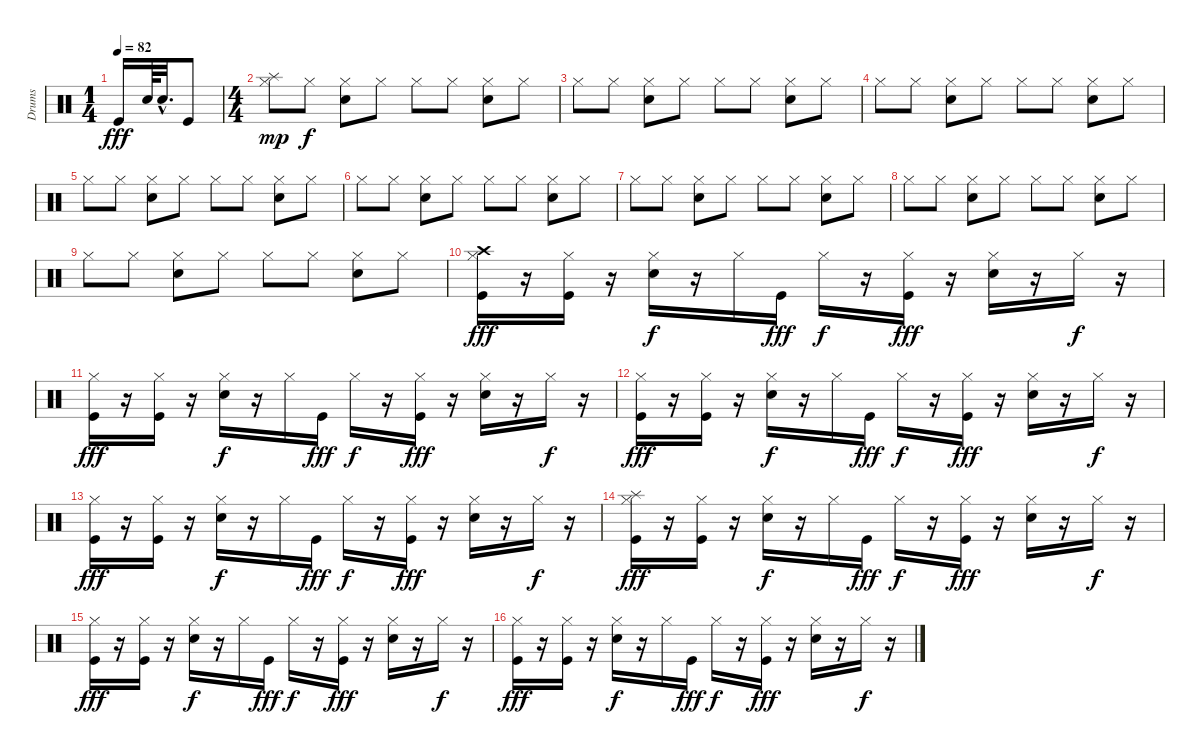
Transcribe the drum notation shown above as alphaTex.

\track ("Drums" "Drums") {instrument percussion}
\staff {score}
\articulation defaults
\ts (1 4)
\tempo 82
\clef neutral
\ks c "Kick (hit)".16{dy fff} "Electric Snare (hit)".64 "Electric Snare (hit)"{hac}.32{d} "Kick (hit)".8
|
\ts (4 4)
("Hi-Hat (closed)" "Splash (hit)").8{dy mp} "Hi-Hat (closed)".8{dy f} ("Hi-Hat (closed)" "Hand Clap (hit)").8 "Hi-Hat (closed)".8 "Hi-Hat (closed)".8 "Hi-Hat (closed)".8 ("Hi-Hat (closed)" "Hand Clap (hit)").8 "Hi-Hat (closed)".8 |
"Hi-Hat (closed)".8 "Hi-Hat (closed)".8 ("Hi-Hat (closed)" "Hand Clap (hit)").8 "Hi-Hat (closed)".8 "Hi-Hat (closed)".8 "Hi-Hat (closed)".8 ("Hi-Hat (closed)" "Hand Clap (hit)").8 "Hi-Hat (closed)".8 |
"Hi-Hat (closed)".8 "Hi-Hat (closed)".8 ("Hi-Hat (closed)" "Hand Clap (hit)").8 "Hi-Hat (closed)".8 "Hi-Hat (closed)".8 "Hi-Hat (closed)".8 ("Hi-Hat (closed)" "Hand Clap (hit)").8 "Hi-Hat (closed)".8 |
"Hi-Hat (closed)".8 "Hi-Hat (closed)".8 ("Hi-Hat (closed)" "Hand Clap (hit)").8 "Hi-Hat (closed)".8 "Hi-Hat (closed)".8 "Hi-Hat (closed)".8 ("Hi-Hat (closed)" "Hand Clap (hit)").8 "Hi-Hat (closed)".8 |
"Hi-Hat (closed)".8 "Hi-Hat (closed)".8 ("Hi-Hat (closed)" "Hand Clap (hit)").8 "Hi-Hat (closed)".8 "Hi-Hat (closed)".8 "Hi-Hat (closed)".8 ("Hi-Hat (closed)" "Hand Clap (hit)").8 "Hi-Hat (closed)".8 |
"Hi-Hat (closed)".8 "Hi-Hat (closed)".8 ("Hi-Hat (closed)" "Hand Clap (hit)").8 "Hi-Hat (closed)".8 "Hi-Hat (closed)".8 "Hi-Hat (closed)".8 ("Hi-Hat (closed)" "Hand Clap (hit)").8 "Hi-Hat (closed)".8 |
"Hi-Hat (closed)".8 "Hi-Hat (closed)".8 ("Hi-Hat (closed)" "Hand Clap (hit)").8 "Hi-Hat (closed)".8 "Hi-Hat (closed)".8 "Hi-Hat (closed)".8 ("Hi-Hat (closed)" "Hand Clap (hit)").8 "Hi-Hat (closed)".8 |
"Hi-Hat (closed)".8 "Hi-Hat (closed)".8 ("Hi-Hat (closed)" "Hand Clap (hit)").8 "Hi-Hat (closed)".8 "Hi-Hat (closed)".8 "Hi-Hat (closed)".8 ("Hi-Hat (closed)" "Hand Clap (hit)").8 "Hi-Hat (closed)".8 |
("Hi-Hat (closed)" "Crash high (hit)" "Kick (hit)").16{dy fff} r.16 ("Hi-Hat (closed)" "Kick (hit)").16 r.16 ("Hi-Hat (closed)" "Electric Snare (hit)").16{dy f} r.16 "Hi-Hat (closed)".16 "Kick (hit)".16{dy fff} "Hi-Hat (closed)".16{dy f} r.16 ("Hi-Hat (closed)" "Kick (hit)").16{dy fff} r.16 ("Hi-Hat (closed)" "Electric Snare (hit)").16 r.16 "Hi-Hat (closed)".16{dy f} r.16 |
("Hi-Hat (closed)" "Kick (hit)").16{dy fff} r.16 ("Hi-Hat (closed)" "Kick (hit)").16 r.16 ("Hi-Hat (closed)" "Electric Snare (hit)").16{dy f} r.16 "Hi-Hat (closed)".16 "Kick (hit)".16{dy fff} "Hi-Hat (closed)".16{dy f} r.16 ("Hi-Hat (closed)" "Kick (hit)").16{dy fff} r.16 ("Hi-Hat (closed)" "Electric Snare (hit)").16 r.16 "Hi-Hat (closed)".16{dy f} r.16 |
("Hi-Hat (closed)" "Kick (hit)").16{dy fff} r.16 ("Hi-Hat (closed)" "Kick (hit)").16 r.16 ("Hi-Hat (closed)" "Electric Snare (hit)").16{dy f} r.16 "Hi-Hat (closed)".16 "Kick (hit)".16{dy fff} "Hi-Hat (closed)".16{dy f} r.16 ("Hi-Hat (closed)" "Kick (hit)").16{dy fff} r.16 ("Hi-Hat (closed)" "Electric Snare (hit)").16 r.16 "Hi-Hat (closed)".16{dy f} r.16 |
("Hi-Hat (closed)" "Kick (hit)").16{dy fff} r.16 ("Hi-Hat (closed)" "Kick (hit)").16 r.16 ("Hi-Hat (closed)" "Electric Snare (hit)").16{dy f} r.16 "Hi-Hat (closed)".16 "Kick (hit)".16{dy fff} "Hi-Hat (closed)".16{dy f} r.16 ("Hi-Hat (closed)" "Kick (hit)").16{dy fff} r.16 ("Hi-Hat (closed)" "Electric Snare (hit)").16 r.16 "Hi-Hat (closed)".16{dy f} r.16 |
("Hi-Hat (closed)" "Splash (hit)" "Kick (hit)").16{dy fff} r.16 ("Hi-Hat (closed)" "Kick (hit)").16 r.16 ("Hi-Hat (closed)" "Electric Snare (hit)").16{dy f} r.16 "Hi-Hat (closed)".16 "Kick (hit)".16{dy fff} "Hi-Hat (closed)".16{dy f} r.16 ("Hi-Hat (closed)" "Kick (hit)").16{dy fff} r.16 ("Hi-Hat (closed)" "Electric Snare (hit)").16 r.16 "Hi-Hat (closed)".16{dy f} r.16 |
("Hi-Hat (closed)" "Kick (hit)").16{dy fff} r.16 ("Hi-Hat (closed)" "Kick (hit)").16 r.16 ("Hi-Hat (closed)" "Electric Snare (hit)").16{dy f} r.16 "Hi-Hat (closed)".16 "Kick (hit)".16{dy fff} "Hi-Hat (closed)".16{dy f} r.16 ("Hi-Hat (closed)" "Kick (hit)").16{dy fff} r.16 ("Hi-Hat (closed)" "Electric Snare (hit)").16 r.16 "Hi-Hat (closed)".16{dy f} r.16 |
("Hi-Hat (closed)" "Kick (hit)").16{dy fff} r.16 ("Hi-Hat (closed)" "Kick (hit)").16 r.16 ("Hi-Hat (closed)" "Electric Snare (hit)").16{dy f} r.16 "Hi-Hat (closed)".16 "Kick (hit)".16{dy fff} "Hi-Hat (closed)".16{dy f} r.16 ("Hi-Hat (closed)" "Kick (hit)").16{dy fff} r.16 ("Hi-Hat (closed)" "Electric Snare (hit)").16 r.16 "Hi-Hat (closed)".16{dy f} r.16
